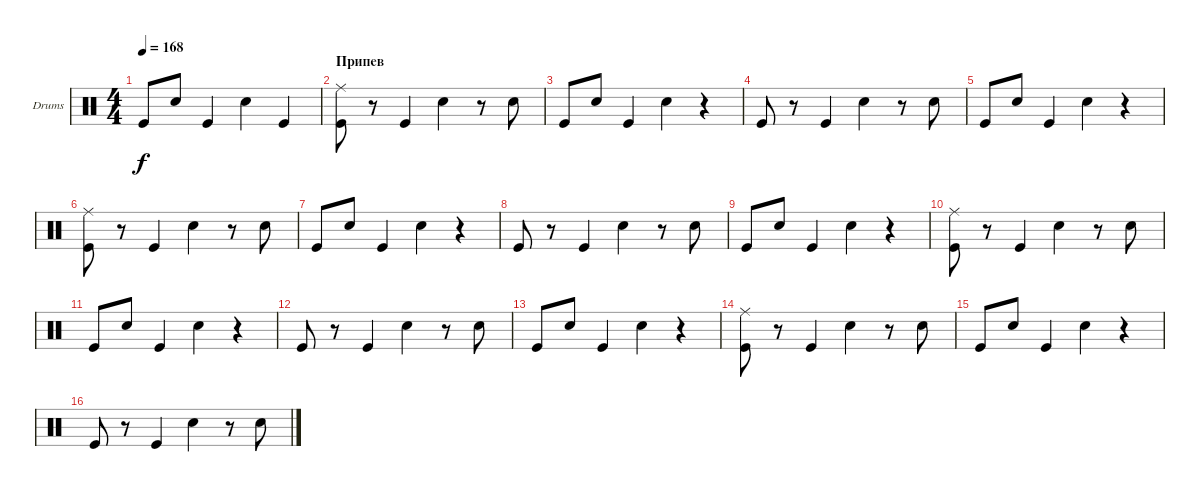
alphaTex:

\defaultSystemsLayout 4
\bracketExtendMode groupsimilarinstruments
\firstSystemTrackNameOrientation horizontal
\otherSystemsTrackNameOrientation horizontal
\track ("Е. Кулаков" "Drums") {instrument percussion}
\staff {score}
\articulation defaults
\ts (4 4)
\tempo 168
\clef neutral
\scale
0.333333
\ks c "Kick (hit)".8{dy f} "Snare (hit) 2".8 "Kick (hit)".4 "Snare (hit) 2".4 "Kick (hit)".4
|
\section ("" "Припев")
\scale
0.333333 ("Kick (hit)" "Ride (middle)").8 r.8 "Kick (hit)".4 "Snare (hit) 2".4 r.8 "Snare (hit) 2".8 |
\scale
0.333333 "Kick (hit)".8 "Snare (hit) 2".8 "Kick (hit)".4 "Snare (hit) 2".4 r.4 |
\scale
0.333333 "Kick (hit)".8 r.8 "Kick (hit)".4 "Snare (hit) 2".4 r.8 "Snare (hit) 2".8 |
\scale
0.333333 "Kick (hit)".8 "Snare (hit) 2".8 "Kick (hit)".4 "Snare (hit) 2".4 r.4 |
\scale
0.333333 ("Kick (hit)" "Ride (middle)").8 r.8 "Kick (hit)".4 "Snare (hit) 2".4 r.8 "Snare (hit) 2".8 |
\scale
0.333333 "Kick (hit)".8 "Snare (hit) 2".8 "Kick (hit)".4 "Snare (hit) 2".4 r.4 |
\scale
0.333333 "Kick (hit)".8 r.8 "Kick (hit)".4 "Snare (hit) 2".4 r.8 "Snare (hit) 2".8 |
\scale
0.333333 "Kick (hit)".8 "Snare (hit) 2".8 "Kick (hit)".4 "Snare (hit) 2".4 r.4 |
\scale
0.333333 ("Kick (hit)" "Ride (middle)").8 r.8 "Kick (hit)".4 "Snare (hit) 2".4 r.8 "Snare (hit) 2".8 |
\scale
0.333333 "Kick (hit)".8 "Snare (hit) 2".8 "Kick (hit)".4 "Snare (hit) 2".4 r.4 |
\scale
0.333333 "Kick (hit)".8 r.8 "Kick (hit)".4 "Snare (hit) 2".4 r.8 "Snare (hit) 2".8 |
\scale
0.333333 "Kick (hit)".8 "Snare (hit) 2".8 "Kick (hit)".4 "Snare (hit) 2".4 r.4 |
\scale
0.333333 ("Kick (hit)" "Ride (middle)").8 r.8 "Kick (hit)".4 "Snare (hit) 2".4 r.8 "Snare (hit) 2".8 |
\scale
0.333333 "Kick (hit)".8 "Snare (hit) 2".8 "Kick (hit)".4 "Snare (hit) 2".4 r.4 |
\scale
0.333333 "Kick (hit)".8 r.8 "Kick (hit)".4 "Snare (hit) 2".4 r.8 "Snare (hit) 2".8
